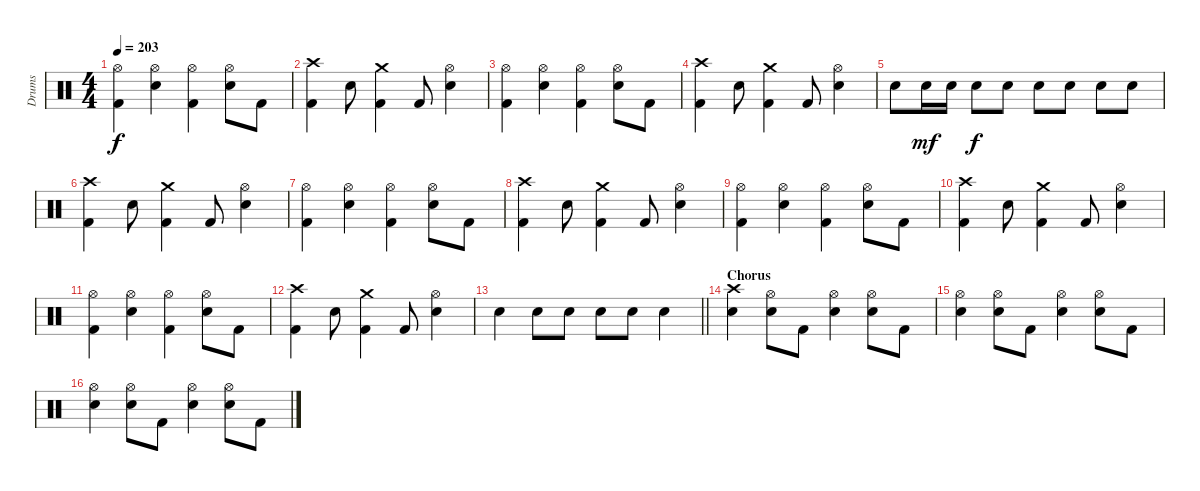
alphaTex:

\track ("Drums" "Drums") {instrument percussion}
\staff {score}
\articulation defaults
\ts (4 4)
\tempo 203
\clef neutral
\ks c
("Hi-Hat (open)" "Kick (hit) 2").4{dy f} ("Hi-Hat (open)" "Snare (hit) 2").4 ("Hi-Hat (open)" "Kick (hit) 2").4 ("Hi-Hat (open)" "Snare (hit) 2").8 "Kick (hit) 2".8 |
("Crash high (hit)" "Kick (hit) 2").4 "Snare (hit) 2".8 ("Crash medium (hit)" "Kick (hit) 2").4 "Kick (hit) 2".8 ("Hi-Hat (open)" "Snare (hit) 2").4 |
("Hi-Hat (open)" "Kick (hit) 2").4 ("Hi-Hat (open)" "Snare (hit) 2").4 ("Hi-Hat (open)" "Kick (hit) 2").4 ("Hi-Hat (open)" "Snare (hit) 2").8 "Kick (hit) 2".8 |
("Crash high (hit)" "Kick (hit) 2").4 "Snare (hit) 2".8 ("Crash medium (hit)" "Kick (hit) 2").4 "Kick (hit) 2".8 ("Hi-Hat (open)" "Snare (hit) 2").4 |
"Snare (hit) 2".8 "Snare (hit) 2".16{dy mf} "Snare (hit) 2".16 "Snare (hit) 2".8{dy f} "Snare (hit) 2".8 "Snare (hit) 2".8 "Snare (hit) 2".8 "Snare (hit) 2".8 "Snare (hit) 2".8 |
("Crash high (hit)" "Kick (hit) 2").4 "Snare (hit) 2".8 ("Crash medium (hit)" "Kick (hit) 2").4 "Kick (hit) 2".8 ("Hi-Hat (open)" "Snare (hit) 2").4 |
("Hi-Hat (open)" "Kick (hit) 2").4 ("Hi-Hat (open)" "Snare (hit) 2").4 ("Hi-Hat (open)" "Kick (hit) 2").4 ("Hi-Hat (open)" "Snare (hit) 2").8 "Kick (hit) 2".8 |
("Crash high (hit)" "Kick (hit) 2").4 "Snare (hit) 2".8 ("Crash medium (hit)" "Kick (hit) 2").4 "Kick (hit) 2".8 ("Hi-Hat (open)" "Snare (hit) 2").4 |
("Hi-Hat (open)" "Kick (hit) 2").4 ("Hi-Hat (open)" "Snare (hit) 2").4 ("Hi-Hat (open)" "Kick (hit) 2").4 ("Hi-Hat (open)" "Snare (hit) 2").8 "Kick (hit) 2".8 |
("Crash high (hit)" "Kick (hit) 2").4 "Snare (hit) 2".8 ("Crash medium (hit)" "Kick (hit) 2").4 "Kick (hit) 2".8 ("Hi-Hat (open)" "Snare (hit) 2").4 |
("Hi-Hat (open)" "Kick (hit) 2").4 ("Hi-Hat (open)" "Snare (hit) 2").4 ("Hi-Hat (open)" "Kick (hit) 2").4 ("Hi-Hat (open)" "Snare (hit) 2").8 "Kick (hit) 2".8 |
("Crash high (hit)" "Kick (hit) 2").4 "Snare (hit) 2".8 ("Crash medium (hit)" "Kick (hit) 2").4 "Kick (hit) 2".8 ("Hi-Hat (open)" "Snare (hit) 2").4 |
\barLineRight lightlight "Snare (hit) 2".4 "Snare (hit) 2".8 "Snare (hit) 2".8 "Snare (hit) 2".8 "Snare (hit) 2".8 "Snare (hit) 2".4
|
\section ("" "Chorus")
("Crash high (hit)" "Snare (hit) 2").4 ("Hi-Hat (open)" "Snare (hit) 2").8 "Kick (hit) 2".8 ("Hi-Hat (open)" "Snare (hit) 2").4 ("Hi-Hat (open)" "Snare (hit) 2").8 "Kick (hit) 2".8 |
("Hi-Hat (open)" "Snare (hit) 2").4 ("Hi-Hat (open)" "Snare (hit) 2").8 "Kick (hit) 2".8 ("Hi-Hat (open)" "Snare (hit) 2").4 ("Hi-Hat (open)" "Snare (hit) 2").8 "Kick (hit) 2".8 |
("Hi-Hat (open)" "Snare (hit) 2").4 ("Hi-Hat (open)" "Snare (hit) 2").8 "Kick (hit) 2".8 ("Hi-Hat (open)" "Snare (hit) 2").4 ("Hi-Hat (open)" "Snare (hit) 2").8 "Kick (hit) 2".8
